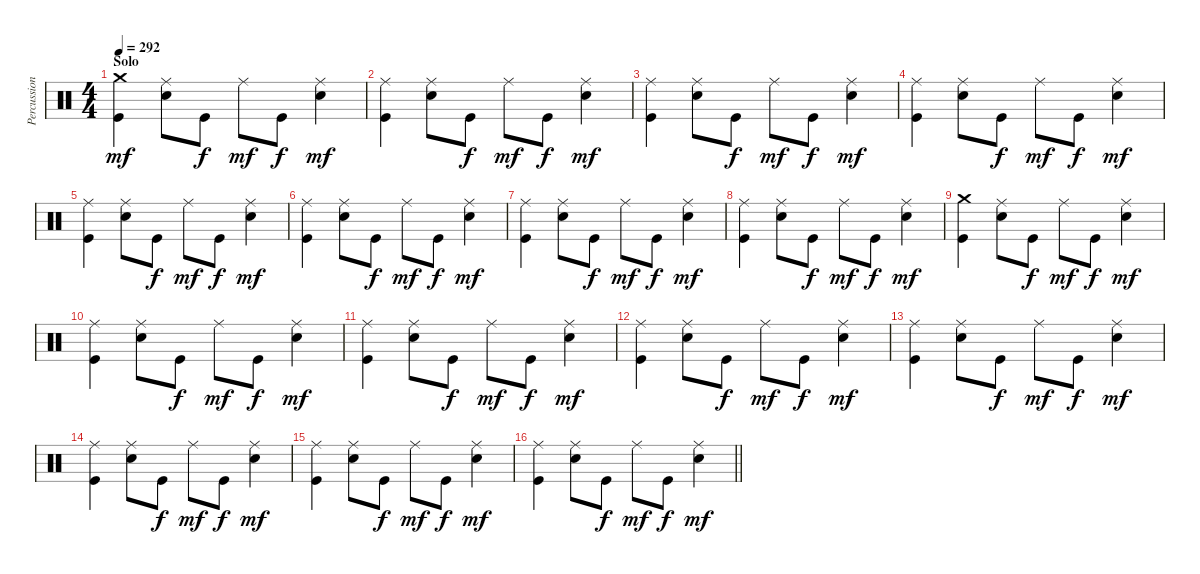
\track ("Percussion" "Percussion") {instrument percussion}
\staff {score}
\articulation defaults
\ts (4 4)
\section ("" "Solo")
\tempo 292
\clef neutral
\ks c
("Crash medium (hit)" "Kick (hit)").4{dy mf} ("Ride (middle)" "Electric Snare (hit)").8 "Kick (hit)".8{dy f} "Ride (middle)".8{dy mf} "Kick (hit)".8{dy f} ("Ride (middle)" "Electric Snare (hit)").4{dy mf} |
("Ride (middle)" "Kick (hit)").4 ("Ride (middle)" "Electric Snare (hit)").8 "Kick (hit)".8{dy f} "Ride (middle)".8{dy mf} "Kick (hit)".8{dy f} ("Ride (middle)" "Electric Snare (hit)").4{dy mf} |
("Ride (middle)" "Kick (hit)").4 ("Ride (middle)" "Electric Snare (hit)").8 "Kick (hit)".8{dy f} "Ride (middle)".8{dy mf} "Kick (hit)".8{dy f} ("Ride (middle)" "Electric Snare (hit)").4{dy mf} |
("Ride (middle)" "Kick (hit)").4 ("Ride (middle)" "Electric Snare (hit)").8 "Kick (hit)".8{dy f} "Ride (middle)".8{dy mf} "Kick (hit)".8{dy f} ("Ride (middle)" "Electric Snare (hit)").4{dy mf} |
("Ride (middle)" "Kick (hit)").4 ("Ride (middle)" "Electric Snare (hit)").8 "Kick (hit)".8{dy f} "Ride (middle)".8{dy mf} "Kick (hit)".8{dy f} ("Ride (middle)" "Electric Snare (hit)").4{dy mf} |
("Ride (middle)" "Kick (hit)").4 ("Ride (middle)" "Electric Snare (hit)").8 "Kick (hit)".8{dy f} "Ride (middle)".8{dy mf} "Kick (hit)".8{dy f} ("Ride (middle)" "Electric Snare (hit)").4{dy mf} |
("Ride (middle)" "Kick (hit)").4 ("Ride (middle)" "Electric Snare (hit)").8 "Kick (hit)".8{dy f} "Ride (middle)".8{dy mf} "Kick (hit)".8{dy f} ("Ride (middle)" "Electric Snare (hit)").4{dy mf} |
("Ride (middle)" "Kick (hit)").4 ("Ride (middle)" "Electric Snare (hit)").8 "Kick (hit)".8{dy f} "Ride (middle)".8{dy mf} "Kick (hit)".8{dy f} ("Ride (middle)" "Electric Snare (hit)").4{dy mf} |
("Crash medium (hit)" "Kick (hit)").4 ("Ride (middle)" "Electric Snare (hit)").8 "Kick (hit)".8{dy f} "Ride (middle)".8{dy mf} "Kick (hit)".8{dy f} ("Ride (middle)" "Electric Snare (hit)").4{dy mf} |
("Ride (middle)" "Kick (hit)").4 ("Ride (middle)" "Electric Snare (hit)").8 "Kick (hit)".8{dy f} "Ride (middle)".8{dy mf} "Kick (hit)".8{dy f} ("Ride (middle)" "Electric Snare (hit)").4{dy mf} |
("Ride (middle)" "Kick (hit)").4 ("Ride (middle)" "Electric Snare (hit)").8 "Kick (hit)".8{dy f} "Ride (middle)".8{dy mf} "Kick (hit)".8{dy f} ("Ride (middle)" "Electric Snare (hit)").4{dy mf} |
("Ride (middle)" "Kick (hit)").4 ("Ride (middle)" "Electric Snare (hit)").8 "Kick (hit)".8{dy f} "Ride (middle)".8{dy mf} "Kick (hit)".8{dy f} ("Ride (middle)" "Electric Snare (hit)").4{dy mf} |
("Ride (middle)" "Kick (hit)").4 ("Ride (middle)" "Electric Snare (hit)").8 "Kick (hit)".8{dy f} "Ride (middle)".8{dy mf} "Kick (hit)".8{dy f} ("Ride (middle)" "Electric Snare (hit)").4{dy mf} |
("Ride (middle)" "Kick (hit)").4 ("Ride (middle)" "Electric Snare (hit)").8 "Kick (hit)".8{dy f} "Ride (middle)".8{dy mf} "Kick (hit)".8{dy f} ("Ride (middle)" "Electric Snare (hit)").4{dy mf} |
("Ride (middle)" "Kick (hit)").4 ("Ride (middle)" "Electric Snare (hit)").8 "Kick (hit)".8{dy f} "Ride (middle)".8{dy mf} "Kick (hit)".8{dy f} ("Ride (middle)" "Electric Snare (hit)").4{dy mf} |
\barLineRight lightlight
("Ride (middle)" "Kick (hit)").4 ("Ride (middle)" "Electric Snare (hit)").8 "Kick (hit)".8{dy f} "Ride (middle)".8{dy mf} "Kick (hit)".8{dy f} ("Ride (middle)" "Electric Snare (hit)").4{dy mf}
